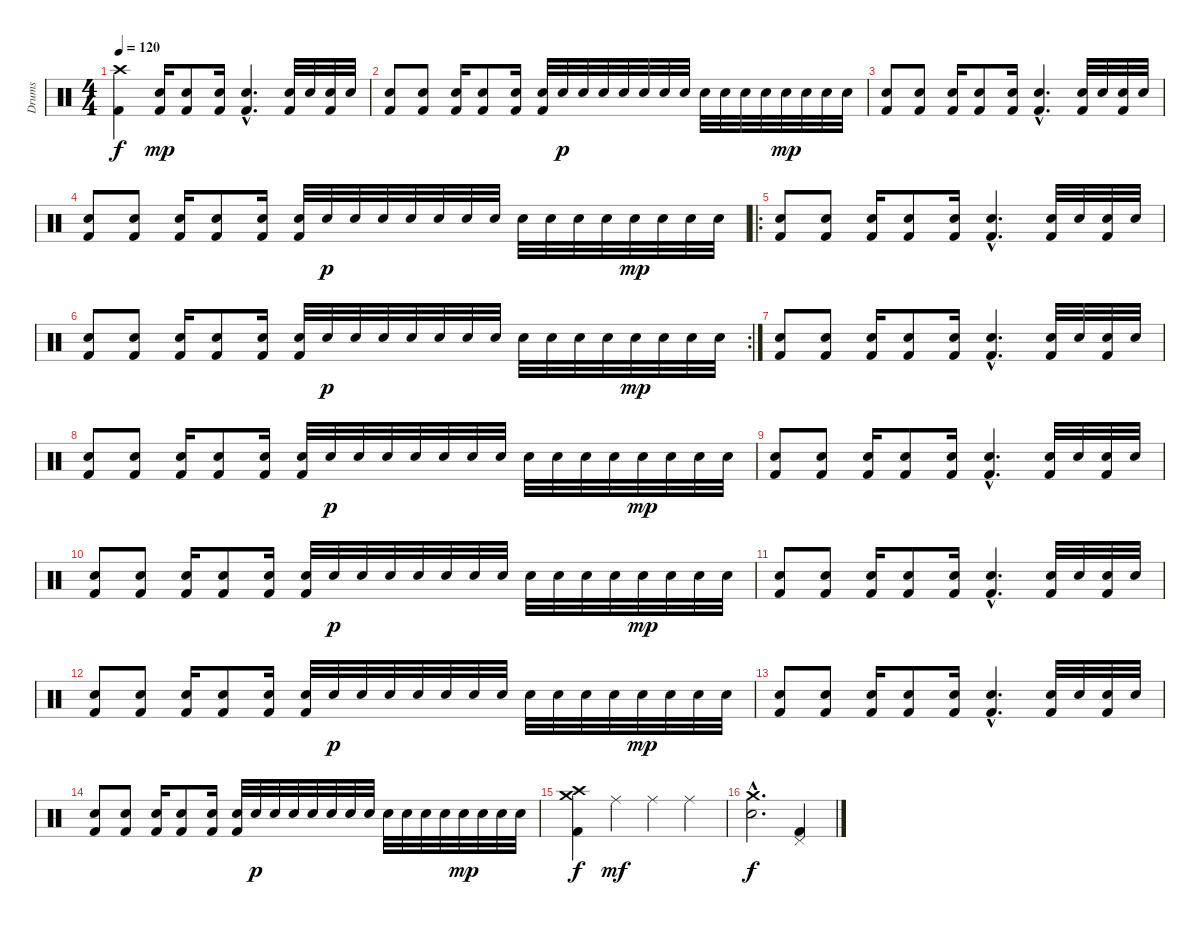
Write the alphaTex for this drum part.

\track ("Drums" "Drums") {instrument percussion}
\staff {score}
\articulation defaults
\ts (4 4)
\tempo 120
\clef neutral
\ks c
("Crash high (hit)" "Kick (hit) 2").4{dy f} ("Electric Snare (hit)" "Kick (hit) 2").16{dy mp} ("Electric Snare (hit)" "Kick (hit) 2").8 ("Electric Snare (hit)" "Kick (hit) 2").16 ("Electric Snare (hit)"{hac} "Kick (hit) 2"{hac}).4{d} ("Electric Snare (hit)" "Kick (hit) 2").32 "Electric Snare (hit)".32 ("Electric Snare (hit)" "Kick (hit) 2").32 "Electric Snare (hit)".32 |
("Electric Snare (hit)" "Kick (hit) 2").8 ("Electric Snare (hit)" "Kick (hit) 2").8 ("Electric Snare (hit)" "Kick (hit) 2").16 ("Electric Snare (hit)" "Kick (hit) 2").8 ("Electric Snare (hit)" "Kick (hit) 2").16 ("Electric Snare (hit)" "Kick (hit) 2").32 "Electric Snare (hit)".32{dy p} "Electric Snare (hit)".32 "Electric Snare (hit)".32 "Electric Snare (hit)".32 "Electric Snare (hit)".32 "Electric Snare (hit)".32 "Electric Snare (hit)".32 "Electric Snare (hit)".32 "Electric Snare (hit)".32 "Electric Snare (hit)".32 "Electric Snare (hit)".32 "Electric Snare (hit)".32{dy mp} "Electric Snare (hit)".32 "Electric Snare (hit)".32 "Electric Snare (hit)".32 |
("Electric Snare (hit)" "Kick (hit) 2").8 ("Electric Snare (hit)" "Kick (hit) 2").8 ("Electric Snare (hit)" "Kick (hit) 2").16 ("Electric Snare (hit)" "Kick (hit) 2").8 ("Electric Snare (hit)" "Kick (hit) 2").16 ("Electric Snare (hit)"{hac} "Kick (hit) 2"{hac}).4{d} ("Electric Snare (hit)" "Kick (hit) 2").32 "Electric Snare (hit)".32 ("Electric Snare (hit)" "Kick (hit) 2").32 "Electric Snare (hit)".32 |
("Electric Snare (hit)" "Kick (hit) 2").8 ("Electric Snare (hit)" "Kick (hit) 2").8 ("Electric Snare (hit)" "Kick (hit) 2").16 ("Electric Snare (hit)" "Kick (hit) 2").8 ("Electric Snare (hit)" "Kick (hit) 2").16 ("Electric Snare (hit)" "Kick (hit) 2").32 "Electric Snare (hit)".32{dy p} "Electric Snare (hit)".32 "Electric Snare (hit)".32 "Electric Snare (hit)".32 "Electric Snare (hit)".32 "Electric Snare (hit)".32 "Electric Snare (hit)".32 "Electric Snare (hit)".32 "Electric Snare (hit)".32 "Electric Snare (hit)".32 "Electric Snare (hit)".32 "Electric Snare (hit)".32{dy mp} "Electric Snare (hit)".32 "Electric Snare (hit)".32 "Electric Snare (hit)".32 |
\ro
("Electric Snare (hit)" "Kick (hit) 2").8 ("Electric Snare (hit)" "Kick (hit) 2").8 ("Electric Snare (hit)" "Kick (hit) 2").16 ("Electric Snare (hit)" "Kick (hit) 2").8 ("Electric Snare (hit)" "Kick (hit) 2").16 ("Electric Snare (hit)"{hac} "Kick (hit) 2"{hac}).4{d} ("Electric Snare (hit)" "Kick (hit) 2").32 "Electric Snare (hit)".32 ("Electric Snare (hit)" "Kick (hit) 2").32 "Electric Snare (hit)".32 |
\rc 2
("Electric Snare (hit)" "Kick (hit) 2").8 ("Electric Snare (hit)" "Kick (hit) 2").8 ("Electric Snare (hit)" "Kick (hit) 2").16 ("Electric Snare (hit)" "Kick (hit) 2").8 ("Electric Snare (hit)" "Kick (hit) 2").16 ("Electric Snare (hit)" "Kick (hit) 2").32 "Electric Snare (hit)".32{dy p} "Electric Snare (hit)".32 "Electric Snare (hit)".32 "Electric Snare (hit)".32 "Electric Snare (hit)".32 "Electric Snare (hit)".32 "Electric Snare (hit)".32 "Electric Snare (hit)".32 "Electric Snare (hit)".32 "Electric Snare (hit)".32 "Electric Snare (hit)".32 "Electric Snare (hit)".32{dy mp} "Electric Snare (hit)".32 "Electric Snare (hit)".32 "Electric Snare (hit)".32 |
("Electric Snare (hit)" "Kick (hit) 2").8 ("Electric Snare (hit)" "Kick (hit) 2").8 ("Electric Snare (hit)" "Kick (hit) 2").16 ("Electric Snare (hit)" "Kick (hit) 2").8 ("Electric Snare (hit)" "Kick (hit) 2").16 ("Electric Snare (hit)"{hac} "Kick (hit) 2"{hac}).4{d} ("Electric Snare (hit)" "Kick (hit) 2").32 "Electric Snare (hit)".32 ("Electric Snare (hit)" "Kick (hit) 2").32 "Electric Snare (hit)".32 |
("Electric Snare (hit)" "Kick (hit) 2").8 ("Electric Snare (hit)" "Kick (hit) 2").8 ("Electric Snare (hit)" "Kick (hit) 2").16 ("Electric Snare (hit)" "Kick (hit) 2").8 ("Electric Snare (hit)" "Kick (hit) 2").16 ("Electric Snare (hit)" "Kick (hit) 2").32 "Electric Snare (hit)".32{dy p} "Electric Snare (hit)".32 "Electric Snare (hit)".32 "Electric Snare (hit)".32 "Electric Snare (hit)".32 "Electric Snare (hit)".32 "Electric Snare (hit)".32 "Electric Snare (hit)".32 "Electric Snare (hit)".32 "Electric Snare (hit)".32 "Electric Snare (hit)".32 "Electric Snare (hit)".32{dy mp} "Electric Snare (hit)".32 "Electric Snare (hit)".32 "Electric Snare (hit)".32 |
("Electric Snare (hit)" "Kick (hit) 2").8 ("Electric Snare (hit)" "Kick (hit) 2").8 ("Electric Snare (hit)" "Kick (hit) 2").16 ("Electric Snare (hit)" "Kick (hit) 2").8 ("Electric Snare (hit)" "Kick (hit) 2").16 ("Electric Snare (hit)"{hac} "Kick (hit) 2"{hac}).4{d} ("Electric Snare (hit)" "Kick (hit) 2").32 "Electric Snare (hit)".32 ("Electric Snare (hit)" "Kick (hit) 2").32 "Electric Snare (hit)".32 |
("Electric Snare (hit)" "Kick (hit) 2").8 ("Electric Snare (hit)" "Kick (hit) 2").8 ("Electric Snare (hit)" "Kick (hit) 2").16 ("Electric Snare (hit)" "Kick (hit) 2").8 ("Electric Snare (hit)" "Kick (hit) 2").16 ("Electric Snare (hit)" "Kick (hit) 2").32 "Electric Snare (hit)".32{dy p} "Electric Snare (hit)".32 "Electric Snare (hit)".32 "Electric Snare (hit)".32 "Electric Snare (hit)".32 "Electric Snare (hit)".32 "Electric Snare (hit)".32 "Electric Snare (hit)".32 "Electric Snare (hit)".32 "Electric Snare (hit)".32 "Electric Snare (hit)".32 "Electric Snare (hit)".32{dy mp} "Electric Snare (hit)".32 "Electric Snare (hit)".32 "Electric Snare (hit)".32 |
("Electric Snare (hit)" "Kick (hit) 2").8 ("Electric Snare (hit)" "Kick (hit) 2").8 ("Electric Snare (hit)" "Kick (hit) 2").16 ("Electric Snare (hit)" "Kick (hit) 2").8 ("Electric Snare (hit)" "Kick (hit) 2").16 ("Electric Snare (hit)"{hac} "Kick (hit) 2"{hac}).4{d} ("Electric Snare (hit)" "Kick (hit) 2").32 "Electric Snare (hit)".32 ("Electric Snare (hit)" "Kick (hit) 2").32 "Electric Snare (hit)".32 |
("Electric Snare (hit)" "Kick (hit) 2").8 ("Electric Snare (hit)" "Kick (hit) 2").8 ("Electric Snare (hit)" "Kick (hit) 2").16 ("Electric Snare (hit)" "Kick (hit) 2").8 ("Electric Snare (hit)" "Kick (hit) 2").16 ("Electric Snare (hit)" "Kick (hit) 2").32 "Electric Snare (hit)".32{dy p} "Electric Snare (hit)".32 "Electric Snare (hit)".32 "Electric Snare (hit)".32 "Electric Snare (hit)".32 "Electric Snare (hit)".32 "Electric Snare (hit)".32 "Electric Snare (hit)".32 "Electric Snare (hit)".32 "Electric Snare (hit)".32 "Electric Snare (hit)".32 "Electric Snare (hit)".32{dy mp} "Electric Snare (hit)".32 "Electric Snare (hit)".32 "Electric Snare (hit)".32 |
("Electric Snare (hit)" "Kick (hit) 2").8 ("Electric Snare (hit)" "Kick (hit) 2").8 ("Electric Snare (hit)" "Kick (hit) 2").16 ("Electric Snare (hit)" "Kick (hit) 2").8 ("Electric Snare (hit)" "Kick (hit) 2").16 ("Electric Snare (hit)"{hac} "Kick (hit) 2"{hac}).4{d} ("Electric Snare (hit)" "Kick (hit) 2").32 "Electric Snare (hit)".32 ("Electric Snare (hit)" "Kick (hit) 2").32 "Electric Snare (hit)".32 |
("Electric Snare (hit)" "Kick (hit) 2").8 ("Electric Snare (hit)" "Kick (hit) 2").8 ("Electric Snare (hit)" "Kick (hit) 2").16 ("Electric Snare (hit)" "Kick (hit) 2").8 ("Electric Snare (hit)" "Kick (hit) 2").16 ("Electric Snare (hit)" "Kick (hit) 2").32 "Electric Snare (hit)".32{dy p} "Electric Snare (hit)".32 "Electric Snare (hit)".32 "Electric Snare (hit)".32 "Electric Snare (hit)".32 "Electric Snare (hit)".32 "Electric Snare (hit)".32 "Electric Snare (hit)".32 "Electric Snare (hit)".32 "Electric Snare (hit)".32 "Electric Snare (hit)".32 "Electric Snare (hit)".32{dy mp} "Electric Snare (hit)".32 "Electric Snare (hit)".32 "Electric Snare (hit)".32 |
("Crash high (hit)" "Crash medium (hit)" "Kick (hit) 2").4{dy f} "Ride (middle)".4{dy mf} "Ride (middle)".4 "Ride (middle)".4 |
("Crash medium (hit)"{hac} "Snare (hit) 2"{hac}).2{d dy f} ("Pedal Hi-Hat (hit)" "Kick (hit) 2").4
